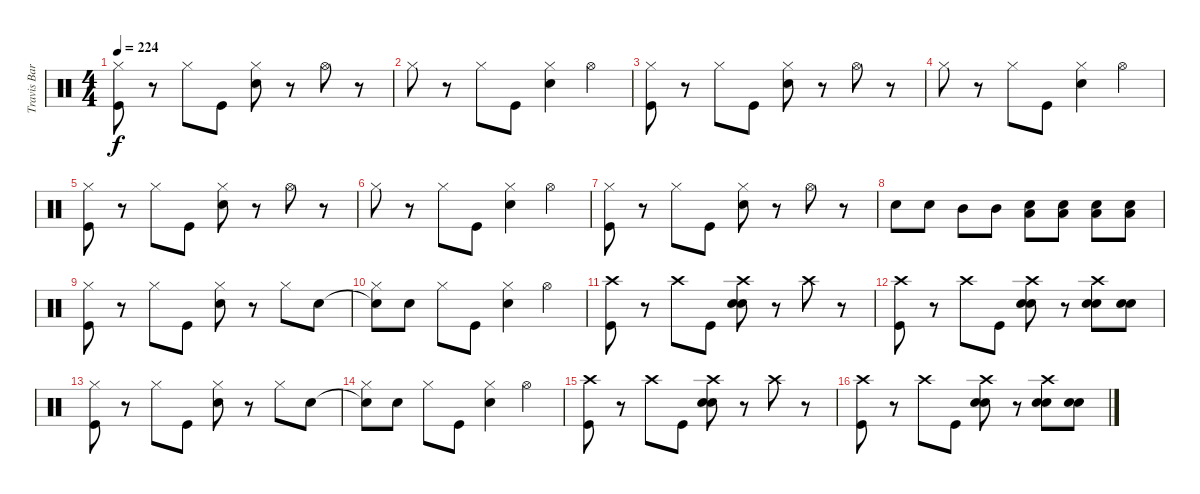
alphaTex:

\track ("Travis Barker (Drums)" "Travis Bar") {instrument percussion}
\staff {score}
\articulation defaults
\ts (4 4)
\tempo 224
\clef neutral
\ks c
("Kick (hit)" "Hi-Hat (closed)").8{dy f} r.8 "Hi-Hat (closed)".8 "Kick (hit)".8 ("Electric Snare (hit)" "Hi-Hat (closed)").8 r.8 "Hi-Hat (open)".8 r.8 |
"Hi-Hat (closed)".8 r.8 "Hi-Hat (closed)".8 "Kick (hit)".8 ("Electric Snare (hit)" "Hi-Hat (closed)").4 "Hi-Hat (open)".4 |
("Kick (hit)" "Hi-Hat (closed)").8 r.8 "Hi-Hat (closed)".8 "Kick (hit)".8 ("Electric Snare (hit)" "Hi-Hat (closed)").8 r.8 "Hi-Hat (open)".8 r.8 |
"Hi-Hat (closed)".8 r.8 "Hi-Hat (closed)".8 "Kick (hit)".8 ("Electric Snare (hit)" "Hi-Hat (closed)").4 "Hi-Hat (open)".4 |
("Kick (hit)" "Hi-Hat (closed)").8 r.8 "Hi-Hat (closed)".8 "Kick (hit)".8 ("Electric Snare (hit)" "Hi-Hat (closed)").8 r.8 "Hi-Hat (open)".8 r.8 |
"Hi-Hat (closed)".8 r.8 "Hi-Hat (closed)".8 "Kick (hit)".8 ("Electric Snare (hit)" "Hi-Hat (closed)").4 "Hi-Hat (open)".4 |
("Kick (hit)" "Hi-Hat (closed)").8 r.8 "Hi-Hat (closed)".8 "Kick (hit)".8 ("Electric Snare (hit)" "Hi-Hat (closed)").8 r.8 "Hi-Hat (open)".8 r.8 |
"Electric Snare (hit)".8 "Electric Snare (hit)".8 "Mid Tom (hit)".8 "Mid Tom (hit)".8 ("Electric Snare (hit)" "Low Floor Tom (hit)").8 ("Electric Snare (hit)" "Low Floor Tom (hit)").8 ("Electric Snare (hit)" "Low Floor Tom (hit)").8 ("Electric Snare (hit)" "Low Floor Tom (hit)").8 |
("Kick (hit)" "Hi-Hat (closed)").8 r.8 "Hi-Hat (closed)".8 "Kick (hit)".8 ("Electric Snare (hit)" "Hi-Hat (closed)").8 r.8 "Hi-Hat (closed)".8 "Electric Snare (hit)".8 |
("Electric Snare (hit)"{t} "Hi-Hat (closed)").8 "Electric Snare (hit)".8 "Hi-Hat (closed)".8 "Kick (hit)".8 ("Electric Snare (hit)" "Hi-Hat (closed)").4 "Hi-Hat (open)".4 |
("Kick (hit)" "Crash high (hit)").8 r.8 "Crash high (hit)".8 "Kick (hit)".8 ("Electric Snare (hit)" "Electric Snare (hit)" "Crash high (hit)").8 r.8 "Crash high (hit)".8 r.8 |
("Kick (hit)" "Crash high (hit)").8 r.8 "Crash high (hit)".8 "Kick (hit)".8 ("Electric Snare (hit)" "Electric Snare (hit)" "Crash high (hit)").8 r.8 ("Electric Snare (hit)" "Electric Snare (hit)" "Crash high (hit)").8 ("Electric Snare (hit)" "Electric Snare (hit)").8 |
("Kick (hit)" "Hi-Hat (closed)").8 r.8 "Hi-Hat (closed)".8 "Kick (hit)".8 ("Electric Snare (hit)" "Hi-Hat (closed)").8 r.8 "Hi-Hat (closed)".8 "Electric Snare (hit)".8 |
("Electric Snare (hit)"{t} "Hi-Hat (closed)").8 "Electric Snare (hit)".8 "Hi-Hat (closed)".8 "Kick (hit)".8 ("Electric Snare (hit)" "Hi-Hat (closed)").4 "Hi-Hat (open)".4 |
("Kick (hit)" "Crash high (hit)").8 r.8 "Crash high (hit)".8 "Kick (hit)".8 ("Electric Snare (hit)" "Electric Snare (hit)" "Crash high (hit)").8 r.8 "Crash high (hit)".8 r.8 |
("Kick (hit)" "Crash high (hit)").8 r.8 "Crash high (hit)".8 "Kick (hit)".8 ("Electric Snare (hit)" "Electric Snare (hit)" "Crash high (hit)").8 r.8 ("Electric Snare (hit)" "Electric Snare (hit)" "Crash high (hit)").8 ("Electric Snare (hit)" "Electric Snare (hit)").8
